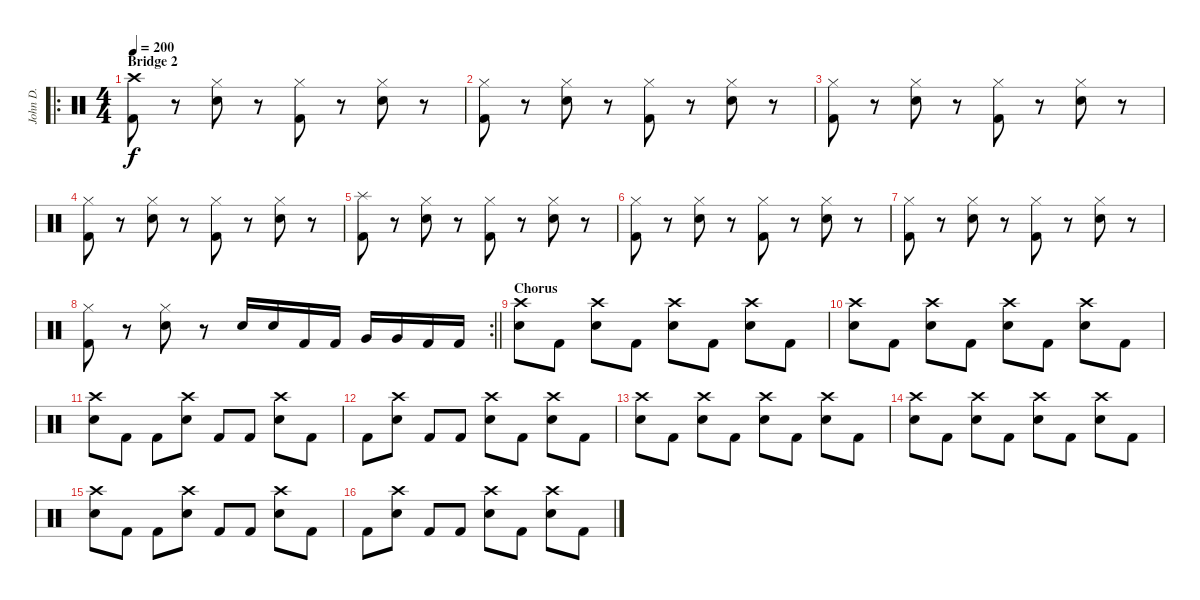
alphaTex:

\track ("John D." "John D.") {instrument percussion}
\staff {score}
\articulation defaults
\ro
\ts (4 4)
\section ("" "Bridge 2")
\tempo 200
\clef neutral
\ks c
("Crash high (hit)" "Kick (hit) 2").8{dy f} r.8 ("Hi-Hat (closed)" "Snare (hit) 2").8 r.8 ("Hi-Hat (closed)" "Kick (hit) 2").8 r.8 ("Hi-Hat (closed)" "Snare (hit) 2").8 r.8 |
("Hi-Hat (closed)" "Kick (hit) 2").8 r.8 ("Hi-Hat (closed)" "Snare (hit) 2").8 r.8 ("Hi-Hat (closed)" "Kick (hit) 2").8 r.8 ("Hi-Hat (closed)" "Snare (hit) 2").8 r.8 |
("Hi-Hat (closed)" "Kick (hit) 2").8 r.8 ("Hi-Hat (closed)" "Snare (hit) 2").8 r.8 ("Hi-Hat (closed)" "Kick (hit) 2").8 r.8 ("Hi-Hat (closed)" "Snare (hit) 2").8 r.8 |
("Hi-Hat (closed)" "Kick (hit) 2").8 r.8 ("Hi-Hat (closed)" "Snare (hit) 2").8 r.8 ("Hi-Hat (closed)" "Kick (hit) 2").8 r.8 ("Hi-Hat (closed)" "Snare (hit) 2").8 r.8 |
("Splash (hit)" "Kick (hit) 2").8 r.8 ("Hi-Hat (closed)" "Snare (hit) 2").8 r.8 ("Hi-Hat (closed)" "Kick (hit) 2").8 r.8 ("Hi-Hat (closed)" "Snare (hit) 2").8 r.8 |
("Hi-Hat (closed)" "Kick (hit) 2").8 r.8 ("Hi-Hat (closed)" "Snare (hit) 2").8 r.8 ("Hi-Hat (closed)" "Kick (hit) 2").8 r.8 ("Hi-Hat (closed)" "Snare (hit) 2").8 r.8 |
("Hi-Hat (closed)" "Kick (hit) 2").8 r.8 ("Hi-Hat (closed)" "Snare (hit) 2").8 r.8 ("Hi-Hat (closed)" "Kick (hit) 2").8 r.8 ("Hi-Hat (closed)" "Snare (hit) 2").8 r.8 |
\rc 2
\barLineRight lightlight
("Hi-Hat (closed)" "Kick (hit) 2").8 r.8 ("Hi-Hat (closed)" "Snare (hit) 2").8 r.8 "Snare (hit) 2".16 "Snare (hit) 2".16 "Kick (hit) 2".16 "Kick (hit) 2".16 "Very Low Tom (hit)".16 "Very Low Tom (hit)".16 "Kick (hit) 2".16 "Kick (hit) 2".16 |
\section ("" "Chorus")
("Crash high (hit)" "Snare (hit) 2").8 "Kick (hit) 2".8 ("Crash high (hit)" "Snare (hit) 2").8 "Kick (hit) 2".8 ("Crash high (hit)" "Snare (hit) 2").8 "Kick (hit) 2".8 ("Crash high (hit)" "Snare (hit) 2").8 "Kick (hit) 2".8 |
("Crash high (hit)" "Snare (hit) 2").8 "Kick (hit) 2".8 ("Crash high (hit)" "Snare (hit) 2").8 "Kick (hit) 2".8 ("Crash high (hit)" "Snare (hit) 2").8 "Kick (hit) 2".8 ("Crash high (hit)" "Snare (hit) 2").8 "Kick (hit) 2".8 |
("Crash high (hit)" "Snare (hit) 2").8 "Kick (hit) 2".8 "Kick (hit) 2".8 ("Crash high (hit)" "Snare (hit) 2").8 "Kick (hit) 2".8 "Kick (hit) 2".8 ("Crash high (hit)" "Snare (hit) 2").8 "Kick (hit) 2".8 |
"Kick (hit) 2".8 ("Crash high (hit)" "Snare (hit) 2").8 "Kick (hit) 2".8 "Kick (hit) 2".8 ("Crash high (hit)" "Snare (hit) 2").8 "Kick (hit) 2".8 ("Crash high (hit)" "Snare (hit) 2").8 "Kick (hit) 2".8 |
("Crash high (hit)" "Snare (hit) 2").8 "Kick (hit) 2".8 ("Crash high (hit)" "Snare (hit) 2").8 "Kick (hit) 2".8 ("Crash high (hit)" "Snare (hit) 2").8 "Kick (hit) 2".8 ("Crash high (hit)" "Snare (hit) 2").8 "Kick (hit) 2".8 |
("Crash high (hit)" "Snare (hit) 2").8 "Kick (hit) 2".8 ("Crash high (hit)" "Snare (hit) 2").8 "Kick (hit) 2".8 ("Crash high (hit)" "Snare (hit) 2").8 "Kick (hit) 2".8 ("Crash high (hit)" "Snare (hit) 2").8 "Kick (hit) 2".8 |
("Crash high (hit)" "Snare (hit) 2").8 "Kick (hit) 2".8 "Kick (hit) 2".8 ("Crash high (hit)" "Snare (hit) 2").8 "Kick (hit) 2".8 "Kick (hit) 2".8 ("Crash high (hit)" "Snare (hit) 2").8 "Kick (hit) 2".8 |
"Kick (hit) 2".8 ("Crash high (hit)" "Snare (hit) 2").8 "Kick (hit) 2".8 "Kick (hit) 2".8 ("Crash high (hit)" "Snare (hit) 2").8 "Kick (hit) 2".8 ("Crash high (hit)" "Snare (hit) 2").8 "Kick (hit) 2".8
